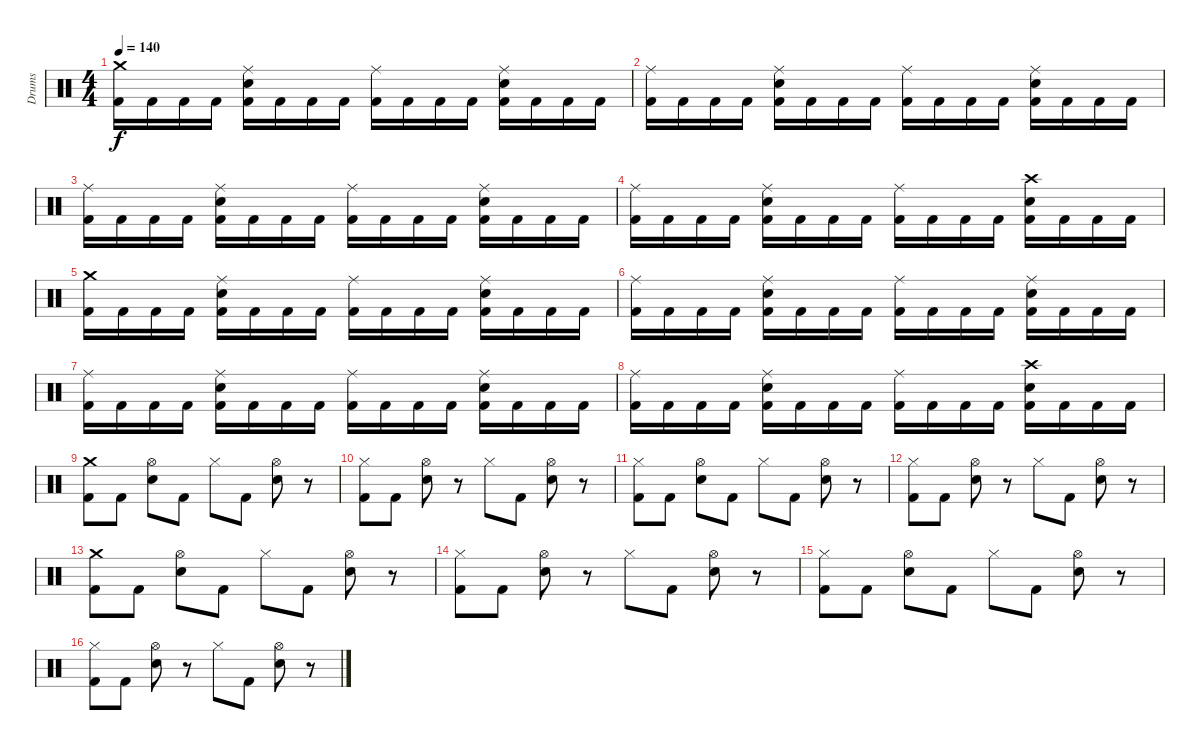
\track ("Drums" "Drums") {instrument percussion}
\staff {score}
\articulation defaults
\ts (4 4)
\tempo 140
\clef neutral
\ks c
("Kick (hit) 2" "Crash medium (hit)").16{dy f} "Kick (hit) 2".16 "Kick (hit) 2".16 "Kick (hit) 2".16 ("Kick (hit) 2" "Electric Snare (hit)" "Ride (middle)").16 "Kick (hit) 2".16 "Kick (hit) 2".16 "Kick (hit) 2".16 ("Kick (hit) 2" "Ride (middle)").16 "Kick (hit) 2".16 "Kick (hit) 2".16 "Kick (hit) 2".16 ("Kick (hit) 2" "Electric Snare (hit)" "Ride (middle)").16 "Kick (hit) 2".16 "Kick (hit) 2".16 "Kick (hit) 2".16 |
("Kick (hit) 2" "Ride (middle)").16 "Kick (hit) 2".16 "Kick (hit) 2".16 "Kick (hit) 2".16 ("Kick (hit) 2" "Electric Snare (hit)" "Ride (middle)").16 "Kick (hit) 2".16 "Kick (hit) 2".16 "Kick (hit) 2".16 ("Kick (hit) 2" "Ride (middle)").16 "Kick (hit) 2".16 "Kick (hit) 2".16 "Kick (hit) 2".16 ("Kick (hit) 2" "Electric Snare (hit)" "Ride (middle)").16 "Kick (hit) 2".16 "Kick (hit) 2".16 "Kick (hit) 2".16 |
("Kick (hit) 2" "Ride (middle)").16 "Kick (hit) 2".16 "Kick (hit) 2".16 "Kick (hit) 2".16 ("Kick (hit) 2" "Electric Snare (hit)" "Ride (middle)").16 "Kick (hit) 2".16 "Kick (hit) 2".16 "Kick (hit) 2".16 ("Kick (hit) 2" "Ride (middle)").16 "Kick (hit) 2".16 "Kick (hit) 2".16 "Kick (hit) 2".16 ("Kick (hit) 2" "Electric Snare (hit)" "Ride (middle)").16 "Kick (hit) 2".16 "Kick (hit) 2".16 "Kick (hit) 2".16 |
("Kick (hit) 2" "Ride (middle)").16 "Kick (hit) 2".16 "Kick (hit) 2".16 "Kick (hit) 2".16 ("Kick (hit) 2" "Electric Snare (hit)" "Ride (middle)").16 "Kick (hit) 2".16 "Kick (hit) 2".16 "Kick (hit) 2".16 ("Kick (hit) 2" "Ride (middle)").16 "Kick (hit) 2".16 "Kick (hit) 2".16 "Kick (hit) 2".16 ("Kick (hit) 2" "Electric Snare (hit)" "Crash high (hit)").16 "Kick (hit) 2".16 "Kick (hit) 2".16 "Kick (hit) 2".16 |
("Kick (hit) 2" "Crash medium (hit)").16 "Kick (hit) 2".16 "Kick (hit) 2".16 "Kick (hit) 2".16 ("Kick (hit) 2" "Electric Snare (hit)" "Ride (middle)").16 "Kick (hit) 2".16 "Kick (hit) 2".16 "Kick (hit) 2".16 ("Kick (hit) 2" "Ride (middle)").16 "Kick (hit) 2".16 "Kick (hit) 2".16 "Kick (hit) 2".16 ("Kick (hit) 2" "Electric Snare (hit)" "Ride (middle)").16 "Kick (hit) 2".16 "Kick (hit) 2".16 "Kick (hit) 2".16 |
("Kick (hit) 2" "Ride (middle)").16 "Kick (hit) 2".16 "Kick (hit) 2".16 "Kick (hit) 2".16 ("Kick (hit) 2" "Electric Snare (hit)" "Ride (middle)").16 "Kick (hit) 2".16 "Kick (hit) 2".16 "Kick (hit) 2".16 ("Kick (hit) 2" "Ride (middle)").16 "Kick (hit) 2".16 "Kick (hit) 2".16 "Kick (hit) 2".16 ("Kick (hit) 2" "Electric Snare (hit)" "Ride (middle)").16 "Kick (hit) 2".16 "Kick (hit) 2".16 "Kick (hit) 2".16 |
("Kick (hit) 2" "Ride (middle)").16 "Kick (hit) 2".16 "Kick (hit) 2".16 "Kick (hit) 2".16 ("Kick (hit) 2" "Electric Snare (hit)" "Ride (middle)").16 "Kick (hit) 2".16 "Kick (hit) 2".16 "Kick (hit) 2".16 ("Kick (hit) 2" "Ride (middle)").16 "Kick (hit) 2".16 "Kick (hit) 2".16 "Kick (hit) 2".16 ("Kick (hit) 2" "Electric Snare (hit)" "Ride (middle)").16 "Kick (hit) 2".16 "Kick (hit) 2".16 "Kick (hit) 2".16 |
("Kick (hit) 2" "Ride (middle)").16 "Kick (hit) 2".16 "Kick (hit) 2".16 "Kick (hit) 2".16 ("Kick (hit) 2" "Electric Snare (hit)" "Ride (middle)").16 "Kick (hit) 2".16 "Kick (hit) 2".16 "Kick (hit) 2".16 ("Kick (hit) 2" "Ride (middle)").16 "Kick (hit) 2".16 "Kick (hit) 2".16 "Kick (hit) 2".16 ("Kick (hit) 2" "Electric Snare (hit)" "Crash high (hit)").16 "Kick (hit) 2".16 "Kick (hit) 2".16 "Kick (hit) 2".16 |
("Kick (hit) 2" "Crash medium (hit)").8 "Kick (hit) 2".8 ("Electric Snare (hit)" "Hi-Hat (open)").8 "Kick (hit) 2".8 "Hi-Hat (closed)".8 "Kick (hit) 2".8 ("Electric Snare (hit)" "Hi-Hat (open)").8 r.8 |
("Kick (hit) 2" "Hi-Hat (closed)").8 "Kick (hit) 2".8 ("Electric Snare (hit)" "Hi-Hat (open)").8 r.8 "Hi-Hat (closed)".8 "Kick (hit) 2".8 ("Electric Snare (hit)" "Hi-Hat (open)").8 r.8 |
("Kick (hit) 2" "Hi-Hat (closed)").8 "Kick (hit) 2".8 ("Electric Snare (hit)" "Hi-Hat (open)").8 "Kick (hit) 2".8 "Hi-Hat (closed)".8 "Kick (hit) 2".8 ("Electric Snare (hit)" "Hi-Hat (open)").8 r.8 |
("Kick (hit) 2" "Hi-Hat (closed)").8 "Kick (hit) 2".8 ("Electric Snare (hit)" "Hi-Hat (open)").8 r.8 "Hi-Hat (closed)".8 "Kick (hit) 2".8 ("Electric Snare (hit)" "Hi-Hat (open)").8 r.8 |
("Kick (hit) 2" "Crash medium (hit)").8 "Kick (hit) 2".8 ("Electric Snare (hit)" "Hi-Hat (open)").8 "Kick (hit) 2".8 "Hi-Hat (closed)".8 "Kick (hit) 2".8 ("Electric Snare (hit)" "Hi-Hat (open)").8 r.8 |
("Kick (hit) 2" "Hi-Hat (closed)").8 "Kick (hit) 2".8 ("Electric Snare (hit)" "Hi-Hat (open)").8 r.8 "Hi-Hat (closed)".8 "Kick (hit) 2".8 ("Electric Snare (hit)" "Hi-Hat (open)").8 r.8 |
("Kick (hit) 2" "Hi-Hat (closed)").8 "Kick (hit) 2".8 ("Electric Snare (hit)" "Hi-Hat (open)").8 "Kick (hit) 2".8 "Hi-Hat (closed)".8 "Kick (hit) 2".8 ("Electric Snare (hit)" "Hi-Hat (open)").8 r.8 |
("Kick (hit) 2" "Hi-Hat (closed)").8 "Kick (hit) 2".8 ("Electric Snare (hit)" "Hi-Hat (open)").8 r.8 "Hi-Hat (closed)".8 "Kick (hit) 2".8 ("Electric Snare (hit)" "Hi-Hat (open)").8 r.8
